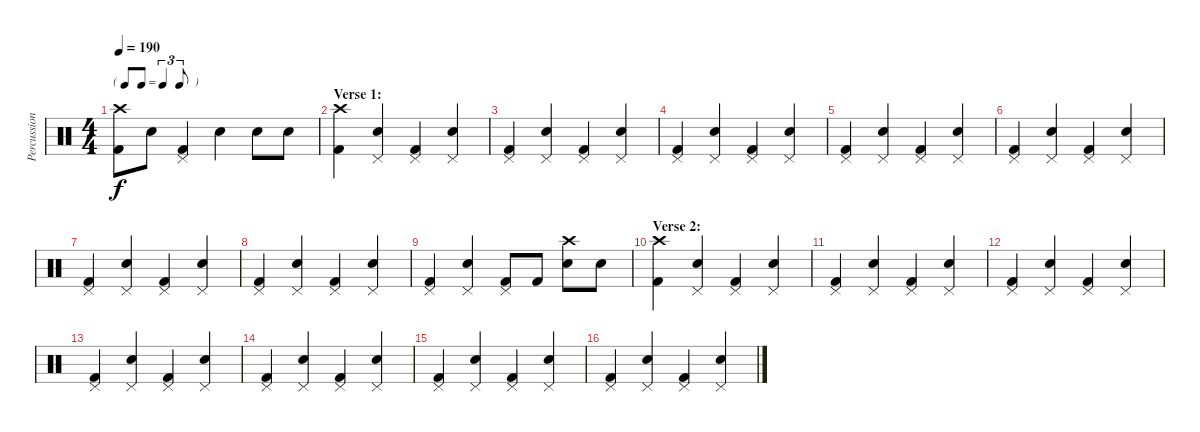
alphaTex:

\track ("Percussion" "Percussion") {instrument percussion}
\staff {score}
\articulation defaults
\ts (4 4)
\tf triplet8th
\tempo 190
\clef neutral
\ks c
("Crash high (hit)" "Kick (hit) 2").8{dy f} "Electric Snare (hit)".8 ("Pedal Hi-Hat (hit)" "Kick (hit) 2").4 "Electric Snare (hit)".4 "Electric Snare (hit)".8 "Electric Snare (hit)".8 |
\section ("" "Verse 1:")
("Crash high (hit)" "Kick (hit) 2").4 ("Pedal Hi-Hat (hit)" "Electric Snare (hit)").4 ("Pedal Hi-Hat (hit)" "Kick (hit) 2").4 ("Pedal Hi-Hat (hit)" "Electric Snare (hit)").4 |
("Pedal Hi-Hat (hit)" "Kick (hit) 2").4 ("Pedal Hi-Hat (hit)" "Electric Snare (hit)").4 ("Pedal Hi-Hat (hit)" "Kick (hit) 2").4 ("Pedal Hi-Hat (hit)" "Electric Snare (hit)").4 |
("Pedal Hi-Hat (hit)" "Kick (hit) 2").4 ("Pedal Hi-Hat (hit)" "Electric Snare (hit)").4 ("Pedal Hi-Hat (hit)" "Kick (hit) 2").4 ("Pedal Hi-Hat (hit)" "Electric Snare (hit)").4 |
("Pedal Hi-Hat (hit)" "Kick (hit) 2").4 ("Pedal Hi-Hat (hit)" "Electric Snare (hit)").4 ("Pedal Hi-Hat (hit)" "Kick (hit) 2").4 ("Pedal Hi-Hat (hit)" "Electric Snare (hit)").4 |
("Pedal Hi-Hat (hit)" "Kick (hit) 2").4 ("Pedal Hi-Hat (hit)" "Electric Snare (hit)").4 ("Pedal Hi-Hat (hit)" "Kick (hit) 2").4 ("Pedal Hi-Hat (hit)" "Electric Snare (hit)").4 |
("Pedal Hi-Hat (hit)" "Kick (hit) 2").4 ("Pedal Hi-Hat (hit)" "Electric Snare (hit)").4 ("Pedal Hi-Hat (hit)" "Kick (hit) 2").4 ("Pedal Hi-Hat (hit)" "Electric Snare (hit)").4 |
("Pedal Hi-Hat (hit)" "Kick (hit) 2").4 ("Pedal Hi-Hat (hit)" "Electric Snare (hit)").4 ("Pedal Hi-Hat (hit)" "Kick (hit) 2").4 ("Pedal Hi-Hat (hit)" "Electric Snare (hit)").4 |
("Pedal Hi-Hat (hit)" "Kick (hit) 2").4 ("Pedal Hi-Hat (hit)" "Electric Snare (hit)").4 ("Pedal Hi-Hat (hit)" "Kick (hit) 2").8 "Kick (hit) 2".8 ("Crash high (hit)" "Electric Snare (hit)").8 "Electric Snare (hit)".8 |
\section ("" "Verse 2:")
("Crash high (hit)" "Kick (hit) 2").4 ("Pedal Hi-Hat (hit)" "Electric Snare (hit)").4 ("Pedal Hi-Hat (hit)" "Kick (hit) 2").4 ("Pedal Hi-Hat (hit)" "Electric Snare (hit)").4 |
("Pedal Hi-Hat (hit)" "Kick (hit) 2").4 ("Pedal Hi-Hat (hit)" "Electric Snare (hit)").4 ("Pedal Hi-Hat (hit)" "Kick (hit) 2").4 ("Pedal Hi-Hat (hit)" "Electric Snare (hit)").4 |
("Pedal Hi-Hat (hit)" "Kick (hit) 2").4 ("Pedal Hi-Hat (hit)" "Electric Snare (hit)").4 ("Pedal Hi-Hat (hit)" "Kick (hit) 2").4 ("Pedal Hi-Hat (hit)" "Electric Snare (hit)").4 |
("Pedal Hi-Hat (hit)" "Kick (hit) 2").4 ("Pedal Hi-Hat (hit)" "Electric Snare (hit)").4 ("Pedal Hi-Hat (hit)" "Kick (hit) 2").4 ("Pedal Hi-Hat (hit)" "Electric Snare (hit)").4 |
("Pedal Hi-Hat (hit)" "Kick (hit) 2").4 ("Pedal Hi-Hat (hit)" "Electric Snare (hit)").4 ("Pedal Hi-Hat (hit)" "Kick (hit) 2").4 ("Pedal Hi-Hat (hit)" "Electric Snare (hit)").4 |
("Pedal Hi-Hat (hit)" "Kick (hit) 2").4 ("Pedal Hi-Hat (hit)" "Electric Snare (hit)").4 ("Pedal Hi-Hat (hit)" "Kick (hit) 2").4 ("Pedal Hi-Hat (hit)" "Electric Snare (hit)").4 |
("Pedal Hi-Hat (hit)" "Kick (hit) 2").4 ("Pedal Hi-Hat (hit)" "Electric Snare (hit)").4 ("Pedal Hi-Hat (hit)" "Kick (hit) 2").4 ("Pedal Hi-Hat (hit)" "Electric Snare (hit)").4
